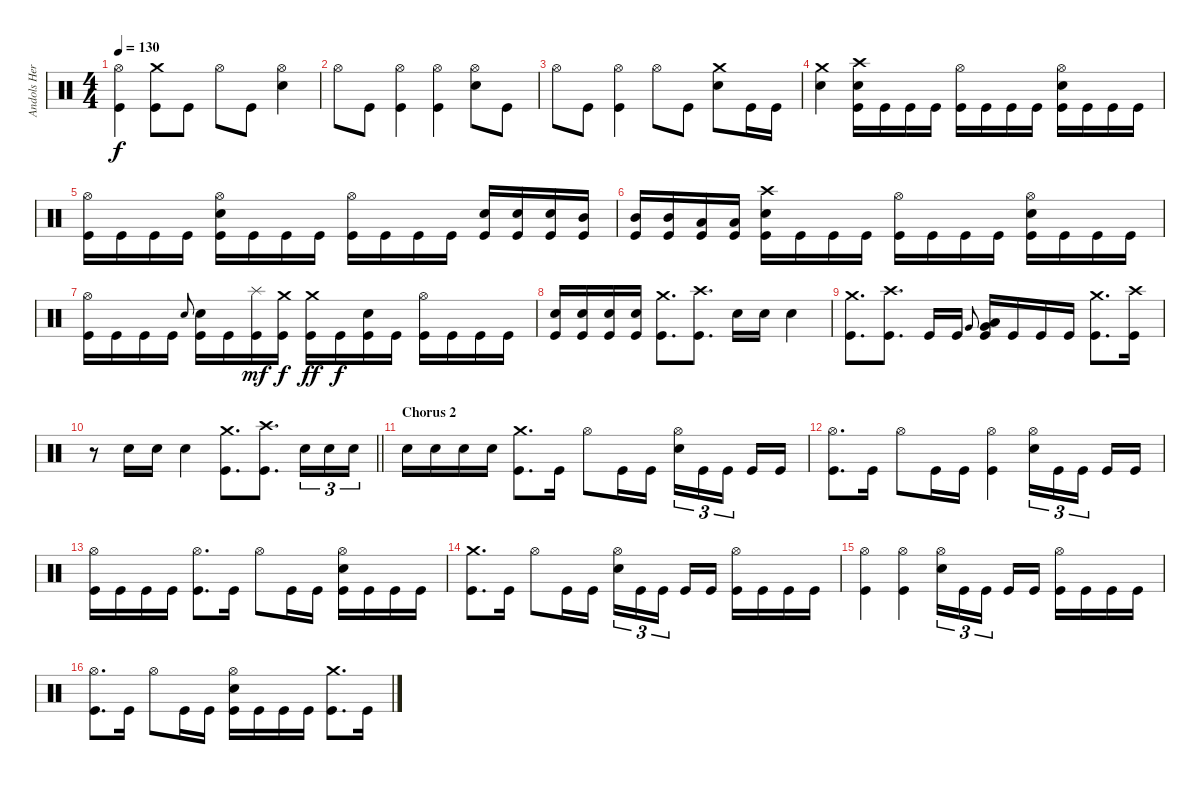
\track ("Andols Herrick" "Andols Her") {instrument percussion}
\staff {score}
\articulation defaults
\ts (4 4)
\tempo 130
\clef neutral
\ks c
("Hi-Hat (open)" "Kick (hit)").4{dy f} ("Crash medium (hit)" "Kick (hit)").8 "Kick (hit)".8 "Hi-Hat (open)".8 "Kick (hit)".8 ("Hi-Hat (open)" "Electric Snare (hit)").4 |
"Hi-Hat (open)".8 "Kick (hit)".8 ("Hi-Hat (open)" "Kick (hit)").4 ("Hi-Hat (open)" "Kick (hit)").4 ("Hi-Hat (open)" "Electric Snare (hit)").8 "Kick (hit)".8 |
"Hi-Hat (open)".8 "Kick (hit)".8 ("Hi-Hat (open)" "Kick (hit)").4 "Hi-Hat (open)".8 "Kick (hit)".8 ("Crash medium (hit)" "Electric Snare (hit)").8 "Kick (hit)".16 "Kick (hit)".16 |
("Crash medium (hit)" "Electric Snare (hit)").4 ("Crash high (hit)" "Electric Snare (hit)" "Kick (hit)").16 "Kick (hit)".16 "Kick (hit)".16 "Kick (hit)".16 ("Hi-Hat (open)" "Kick (hit)").16 "Kick (hit)".16 "Kick (hit)".16 "Kick (hit)".16 ("Hi-Hat (open)" "Electric Snare (hit)" "Kick (hit)").16 "Kick (hit)".16 "Kick (hit)".16 "Kick (hit)".16 |
("Hi-Hat (open)" "Kick (hit)").16 "Kick (hit)".16 "Kick (hit)".16 "Kick (hit)".16 ("Hi-Hat (open)" "Electric Snare (hit)" "Kick (hit)").16 "Kick (hit)".16 "Kick (hit)".16 "Kick (hit)".16 ("Hi-Hat (open)" "Kick (hit)").16 "Kick (hit)".16 "Kick (hit)".16 "Kick (hit)".16 ("Electric Snare (hit)" "Kick (hit)").16 ("Electric Snare (hit)" "Kick (hit)").16 ("Electric Snare (hit)" "Kick (hit)").16 ("Mid Tom (hit)" "Kick (hit)").16 |
("Mid Tom (hit)" "Kick (hit)").16 ("Mid Tom (hit)" "Kick (hit)").16 ("Low Tom (hit)" "Kick (hit)").16 ("Low Tom (hit)" "Kick (hit)").16 ("Crash high (hit)" "Electric Snare (hit)" "Kick (hit)").16 "Kick (hit)".16 "Kick (hit)".16 "Kick (hit)".16 ("Hi-Hat (open)" "Kick (hit)").16 "Kick (hit)".16 "Kick (hit)".16 "Kick (hit)".16 ("Hi-Hat (open)" "Electric Snare (hit)" "Kick (hit)").16 "Kick (hit)".16 "Kick (hit)".16 "Kick (hit)".16 |
("Hi-Hat (open)" "Kick (hit)").16 "Kick (hit)".16 "Kick (hit)".16 "Kick (hit)".16 "Electric Snare (hit)".8{gr onbeat} ("Electric Snare (hit)" "Kick (hit)").16 "Kick (hit)".16 ("Splash (hit)" "Kick (hit)").16{dy mf} ("Crash medium (hit)" "Kick (hit)").16{dy f} ("Crash medium (hit)" "Kick (hit)").16{dy ff} "Kick (hit)".16{dy f} ("Electric Snare (hit)" "Kick (hit)").16 "Kick (hit)".16 ("Hi-Hat (open)" "Kick (hit)").16 "Kick (hit)".16 "Kick (hit)".16 "Kick (hit)".16 |
("Electric Snare (hit)" "Kick (hit)").16 ("Electric Snare (hit)" "Kick (hit)").16 ("Electric Snare (hit)" "Kick (hit)").16 ("Electric Snare (hit)" "Kick (hit)").16 ("Crash medium (hit)" "Kick (hit)").8{d} ("Crash high (hit)" "Kick (hit)").8{d} "Electric Snare (hit)".16 "Electric Snare (hit)".16 "Electric Snare (hit)".4 |
("Crash medium (hit)" "Kick (hit)").8{d} ("Crash high (hit)" "Kick (hit)").8{d} "Kick (hit)".16 "Kick (hit)".16 "Very Low Tom (hit)".8{gr onbeat} ("Low Floor Tom (hit)" "Very Low Tom (hit)" "Kick (hit)").16 "Kick (hit)".16 "Kick (hit)".16 "Kick (hit)".16 ("Crash medium (hit)" "Kick (hit)").8{d} ("Crash high (hit)" "Kick (hit)").16 |
\barLineRight lightlight
r.8 "Electric Snare (hit)".16 "Electric Snare (hit)".16 "Electric Snare (hit)".4 ("Crash medium (hit)" "Kick (hit)").8{d} ("Crash high (hit)" "Kick (hit)").8{d} "Electric Snare (hit)".16{tu (3 2)} "Electric Snare (hit)".16{tu (3 2)} "Electric Snare (hit)".16{tu (3 2)} |
\section ("" "Chorus 2")
"Electric Snare (hit)".16 "Electric Snare (hit)".16 "Electric Snare (hit)".16 "Electric Snare (hit)".16 ("Crash medium (hit)" "Kick (hit)").8{d} "Kick (hit)".16 "Hi-Hat (open)".8 "Kick (hit)".16 "Kick (hit)".16 ("Hi-Hat (open)" "Electric Snare (hit)").16{tu (3 2)} "Kick (hit)".16{tu (3 2)} "Kick (hit)".16{tu (3 2) beam splitsecondary} "Kick (hit)".16 "Kick (hit)".16 |
("Hi-Hat (open)" "Kick (hit)").8{d} "Kick (hit)".16 "Hi-Hat (open)".8 "Kick (hit)".16 "Kick (hit)".16 ("Hi-Hat (open)" "Kick (hit)").4 ("Hi-Hat (open)" "Electric Snare (hit)").16{tu (3 2)} "Kick (hit)".16{tu (3 2)} "Kick (hit)".16{tu (3 2) beam splitsecondary} "Kick (hit)".16 "Kick (hit)".16 |
("Hi-Hat (open)" "Kick (hit)").16 "Kick (hit)".16 "Kick (hit)".16 "Kick (hit)".16 ("Hi-Hat (open)" "Kick (hit)").8{d} "Kick (hit)".16 "Hi-Hat (open)".8 "Kick (hit)".16 "Kick (hit)".16 ("Hi-Hat (open)" "Electric Snare (hit)" "Kick (hit)").16 "Kick (hit)".16 "Kick (hit)".16 "Kick (hit)".16 |
("Crash medium (hit)" "Kick (hit)").8{d} "Kick (hit)".16 "Hi-Hat (open)".8 "Kick (hit)".16 "Kick (hit)".16 ("Hi-Hat (open)" "Electric Snare (hit)").16{tu (3 2)} "Kick (hit)".16{tu (3 2)} "Kick (hit)".16{tu (3 2) beam splitsecondary} "Kick (hit)".16 "Kick (hit)".16 ("Hi-Hat (open)" "Kick (hit)").16 "Kick (hit)".16 "Kick (hit)".16 "Kick (hit)".16 |
("Hi-Hat (open)" "Kick (hit)").4 ("Hi-Hat (open)" "Kick (hit)").4 ("Hi-Hat (open)" "Electric Snare (hit)").16{tu (3 2)} "Kick (hit)".16{tu (3 2)} "Kick (hit)".16{tu (3 2) beam splitsecondary} "Kick (hit)".16 "Kick (hit)".16 ("Hi-Hat (open)" "Kick (hit)").16 "Kick (hit)".16 "Kick (hit)".16 "Kick (hit)".16 |
("Hi-Hat (open)" "Kick (hit)").8{d} "Kick (hit)".16 "Hi-Hat (open)".8 "Kick (hit)".16 "Kick (hit)".16 ("Hi-Hat (open)" "Electric Snare (hit)" "Kick (hit)").16 "Kick (hit)".16 "Kick (hit)".16 "Kick (hit)".16 ("Crash medium (hit)" "Kick (hit)").8{d} "Kick (hit)".16
